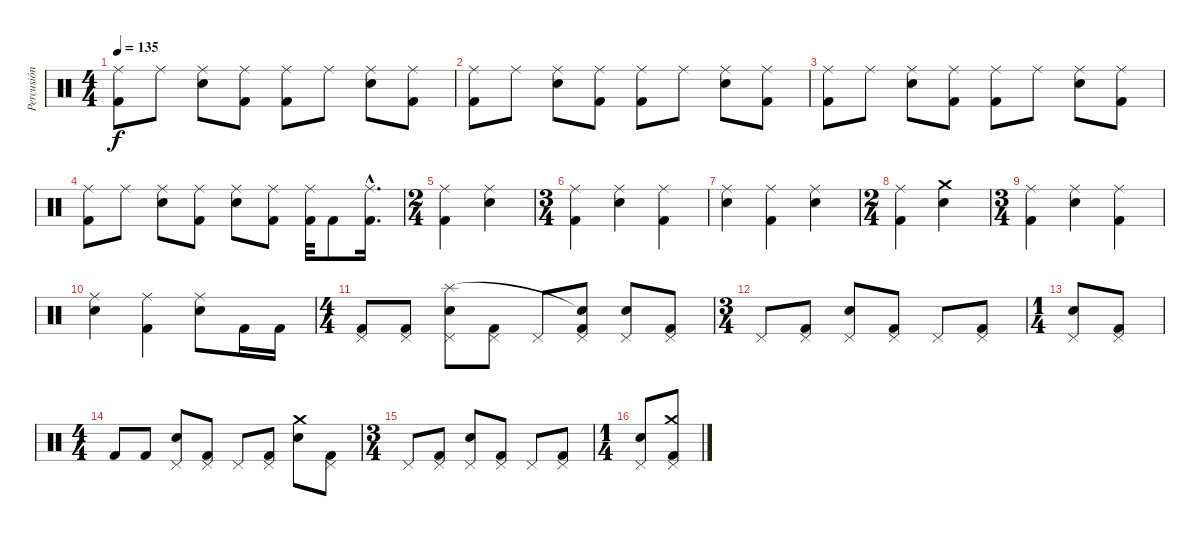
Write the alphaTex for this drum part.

\track ("Percusión" "Percusión") {instrument percussion}
\staff {score}
\articulation defaults
\ts (4 4)
\tempo 135
\clef neutral
\ks c
("Kick (hit) 2" "Ride (middle)").8{dy f} "Ride (middle)".8 ("Snare (hit) 2" "Ride (middle)").8 ("Kick (hit) 2" "Ride (middle)").8 ("Kick (hit) 2" "Ride (middle)").8 "Ride (middle)".8 ("Snare (hit) 2" "Ride (middle)").8 ("Kick (hit) 2" "Ride (middle)").8 |
("Kick (hit) 2" "Ride (middle)").8 "Ride (middle)".8 ("Snare (hit) 2" "Ride (middle)").8 ("Kick (hit) 2" "Ride (middle)").8 ("Kick (hit) 2" "Ride (middle)").8 "Ride (middle)".8 ("Snare (hit) 2" "Ride (middle)").8 ("Kick (hit) 2" "Ride (middle)").8 |
("Kick (hit) 2" "Ride (middle)").8 "Ride (middle)".8 ("Snare (hit) 2" "Ride (middle)").8 ("Kick (hit) 2" "Ride (middle)").8 ("Kick (hit) 2" "Ride (middle)").8 "Ride (middle)".8 ("Snare (hit) 2" "Ride (middle)").8 ("Kick (hit) 2" "Ride (middle)").8 |
("Kick (hit) 2" "Ride (middle)").8 "Ride (middle)".8 ("Snare (hit) 2" "Ride (middle)").8 ("Kick (hit) 2" "Ride (middle)").8 ("Snare (hit) 2" "Ride (middle)").8 ("Kick (hit) 2" "Ride (middle)").8 ("Kick (hit) 2" "Ride (middle)").32 "Kick (hit) 2".8 ("Ride (middle)"{hac} "Kick (hit) 2"{hac}).16{d} |
\ts (2 4)
("Kick (hit) 2" "Ride (middle)").4 ("Snare (hit) 2" "Ride (middle)").4 |
\ts (3 4)
("Kick (hit) 2" "Ride (middle)").4 ("Snare (hit) 2" "Ride (middle)").4 ("Kick (hit) 2" "Ride (middle)").4 |
("Snare (hit) 2" "Ride (middle)").4 ("Kick (hit) 2" "Ride (middle)").4 ("Snare (hit) 2" "Ride (middle)").4 |
\ts (2 4)
("Kick (hit) 2" "Ride (middle)").4 ("Snare (hit) 2" "Crash medium (hit)").4 |
\ts (3 4)
("Kick (hit) 2" "Ride (middle)").4 ("Snare (hit) 2" "Ride (middle)").4 ("Kick (hit) 2" "Ride (middle)").4 |
("Snare (hit) 2" "Ride (middle)").4 ("Kick (hit) 2" "Ride (middle)").4 ("Snare (hit) 2" "Ride (middle)").8 "Kick (hit) 2".16 "Kick (hit) 2".16 |
\ts (4 4)
("Kick (hit) 2" "Pedal Hi-Hat (hit)").8 ("Kick (hit) 2" "Pedal Hi-Hat (hit)").8 ("Snare (hit) 2" "Pedal Hi-Hat (hit)" "Splash (hit)").8 ("Kick (hit) 2" "Pedal Hi-Hat (hit)").8 "Pedal Hi-Hat (hit)".8 ("Kick (hit) 2" "Pedal Hi-Hat (hit)" "Snare (hit)"{t}).8 ("Snare (hit) 2" "Pedal Hi-Hat (hit)").8 ("Kick (hit) 2" "Pedal Hi-Hat (hit)").8 |
\ts (3 4)
"Pedal Hi-Hat (hit)".8 ("Kick (hit) 2" "Pedal Hi-Hat (hit)").8 ("Snare (hit) 2" "Pedal Hi-Hat (hit)").8 ("Kick (hit) 2" "Pedal Hi-Hat (hit)").8 "Pedal Hi-Hat (hit)".8 ("Kick (hit) 2" "Pedal Hi-Hat (hit)").8 |
\ts (1 4)
("Snare (hit) 2" "Pedal Hi-Hat (hit)").8 ("Kick (hit) 2" "Pedal Hi-Hat (hit)").8 |
\ts (4 4)
"Kick (hit) 2".8 "Kick (hit) 2".8 ("Snare (hit) 2" "Pedal Hi-Hat (hit)").8 ("Kick (hit) 2" "Pedal Hi-Hat (hit)").8 "Pedal Hi-Hat (hit)".8 ("Kick (hit) 2" "Pedal Hi-Hat (hit)").8 ("Snare (hit) 2" "Crash medium (hit)").8 ("Kick (hit) 2" "Pedal Hi-Hat (hit)").8 |
\ts (3 4)
"Pedal Hi-Hat (hit)".8 ("Kick (hit) 2" "Pedal Hi-Hat (hit)").8 ("Snare (hit) 2" "Pedal Hi-Hat (hit)").8 ("Kick (hit) 2" "Pedal Hi-Hat (hit)").8 "Pedal Hi-Hat (hit)".8 ("Kick (hit) 2" "Pedal Hi-Hat (hit)").8 |
\ts (1 4)
("Snare (hit) 2" "Pedal Hi-Hat (hit)").8 ("Kick (hit) 2" "Pedal Hi-Hat (hit)" "Crash medium (hit)").8
